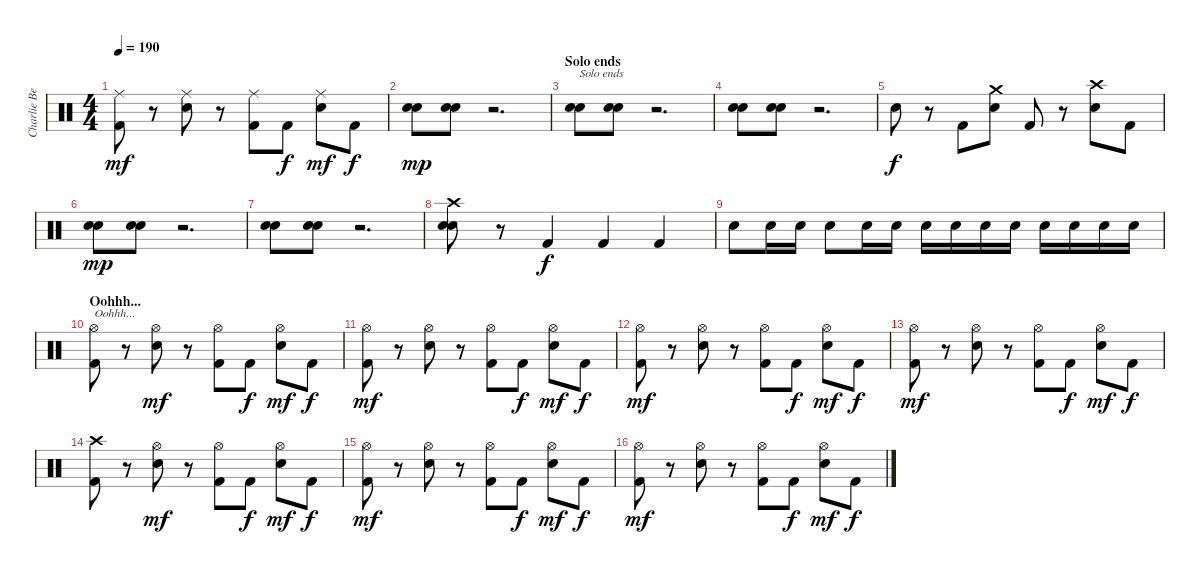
\track ("Charlie Benante" "Charlie Be") {instrument percussion}
\staff {score}
\articulation defaults
\ts (4 4)
\tempo 190
\clef neutral
\ks c
("Ride (middle)" "Kick (hit) 2").8{dy mf} r.8 ("Ride (middle)" "Electric Snare (hit)").8 r.8 ("Ride (middle)" "Kick (hit) 2").8 "Kick (hit) 2".8{dy f} ("Ride (middle)" "Electric Snare (hit)").8{dy mf} "Kick (hit) 2".8{dy f} |
("Snare (hit) 2" "Electric Snare (hit)").8{dy mp} ("Snare (hit) 2" "Electric Snare (hit)").8 r.2{d} |
\section ("" "Solo ends")
("Snare (hit) 2" "Electric Snare (hit)").8{txt "Solo ends"} ("Snare (hit) 2" "Electric Snare (hit)").8 r.2{d} |
("Snare (hit) 2" "Electric Snare (hit)").8 ("Snare (hit) 2" "Electric Snare (hit)").8 r.2{d} |
"Electric Snare (hit)".8{dy f} r.8 "Kick (hit) 2".8 ("Crash medium (hit)" "Electric Snare (hit)").8 "Kick (hit) 2".8 r.8 ("Crash high (hit)" "Electric Snare (hit)").8 "Kick (hit) 2".8 |
("Snare (hit) 2" "Electric Snare (hit)").8{dy mp} ("Snare (hit) 2" "Electric Snare (hit)").8 r.2{d} |
("Snare (hit) 2" "Electric Snare (hit)").8 ("Snare (hit) 2" "Electric Snare (hit)").8 r.2{d} |
("Crash high (hit)" "Snare (hit) 2" "Electric Snare (hit)").8 r.8 "Kick (hit) 2".4{dy f} "Kick (hit) 2".4 "Kick (hit) 2".4 |
"Electric Snare (hit)".8 "Snare (hit) 2".16 "Electric Snare (hit)".16 "Electric Snare (hit)".8 "Snare (hit) 2".16 "Electric Snare (hit)".16 "Snare (hit) 2".16 "Electric Snare (hit)".16 "Electric Snare (hit)".16 "Electric Snare (hit)".16 "Snare (hit) 2".16 "Electric Snare (hit)".16 "Electric Snare (hit)".16 "Electric Snare (hit)".16 |
\section ("" "Oohhh...")
("Hi-Hat (open)" "Kick (hit) 2").8{txt "Oohhh..."} r.8 ("Hi-Hat (open)" "Electric Snare (hit)").8{dy mf} r.8 ("Hi-Hat (open)" "Kick (hit) 2").8 "Kick (hit) 2".8{dy f} ("Hi-Hat (open)" "Electric Snare (hit)").8{dy mf} "Kick (hit) 2".8{dy f} |
("Hi-Hat (open)" "Kick (hit) 2").8{dy mf} r.8 ("Hi-Hat (open)" "Electric Snare (hit)").8 r.8 ("Hi-Hat (open)" "Kick (hit) 2").8 "Kick (hit) 2".8{dy f} ("Hi-Hat (open)" "Electric Snare (hit)").8{dy mf} "Kick (hit) 2".8{dy f} |
("Hi-Hat (open)" "Kick (hit) 2").8{dy mf} r.8 ("Hi-Hat (open)" "Electric Snare (hit)").8 r.8 ("Hi-Hat (open)" "Kick (hit) 2").8 "Kick (hit) 2".8{dy f} ("Hi-Hat (open)" "Electric Snare (hit)").8{dy mf} "Kick (hit) 2".8{dy f} |
("Hi-Hat (open)" "Kick (hit) 2").8{dy mf} r.8 ("Hi-Hat (open)" "Electric Snare (hit)").8 r.8 ("Hi-Hat (open)" "Kick (hit) 2").8 "Kick (hit) 2".8{dy f} ("Hi-Hat (open)" "Electric Snare (hit)").8{dy mf} "Kick (hit) 2".8{dy f} |
("Crash high (hit)" "Kick (hit) 2").8 r.8 ("Hi-Hat (open)" "Electric Snare (hit)").8{dy mf} r.8 ("Hi-Hat (open)" "Kick (hit) 2").8 "Kick (hit) 2".8{dy f} ("Hi-Hat (open)" "Electric Snare (hit)").8{dy mf} "Kick (hit) 2".8{dy f} |
("Hi-Hat (open)" "Kick (hit) 2").8{dy mf} r.8 ("Hi-Hat (open)" "Electric Snare (hit)").8 r.8 ("Hi-Hat (open)" "Kick (hit) 2").8 "Kick (hit) 2".8{dy f} ("Hi-Hat (open)" "Electric Snare (hit)").8{dy mf} "Kick (hit) 2".8{dy f} |
("Hi-Hat (open)" "Kick (hit) 2").8{dy mf} r.8 ("Hi-Hat (open)" "Electric Snare (hit)").8 r.8 ("Hi-Hat (open)" "Kick (hit) 2").8 "Kick (hit) 2".8{dy f} ("Hi-Hat (open)" "Electric Snare (hit)").8{dy mf} "Kick (hit) 2".8{dy f}
